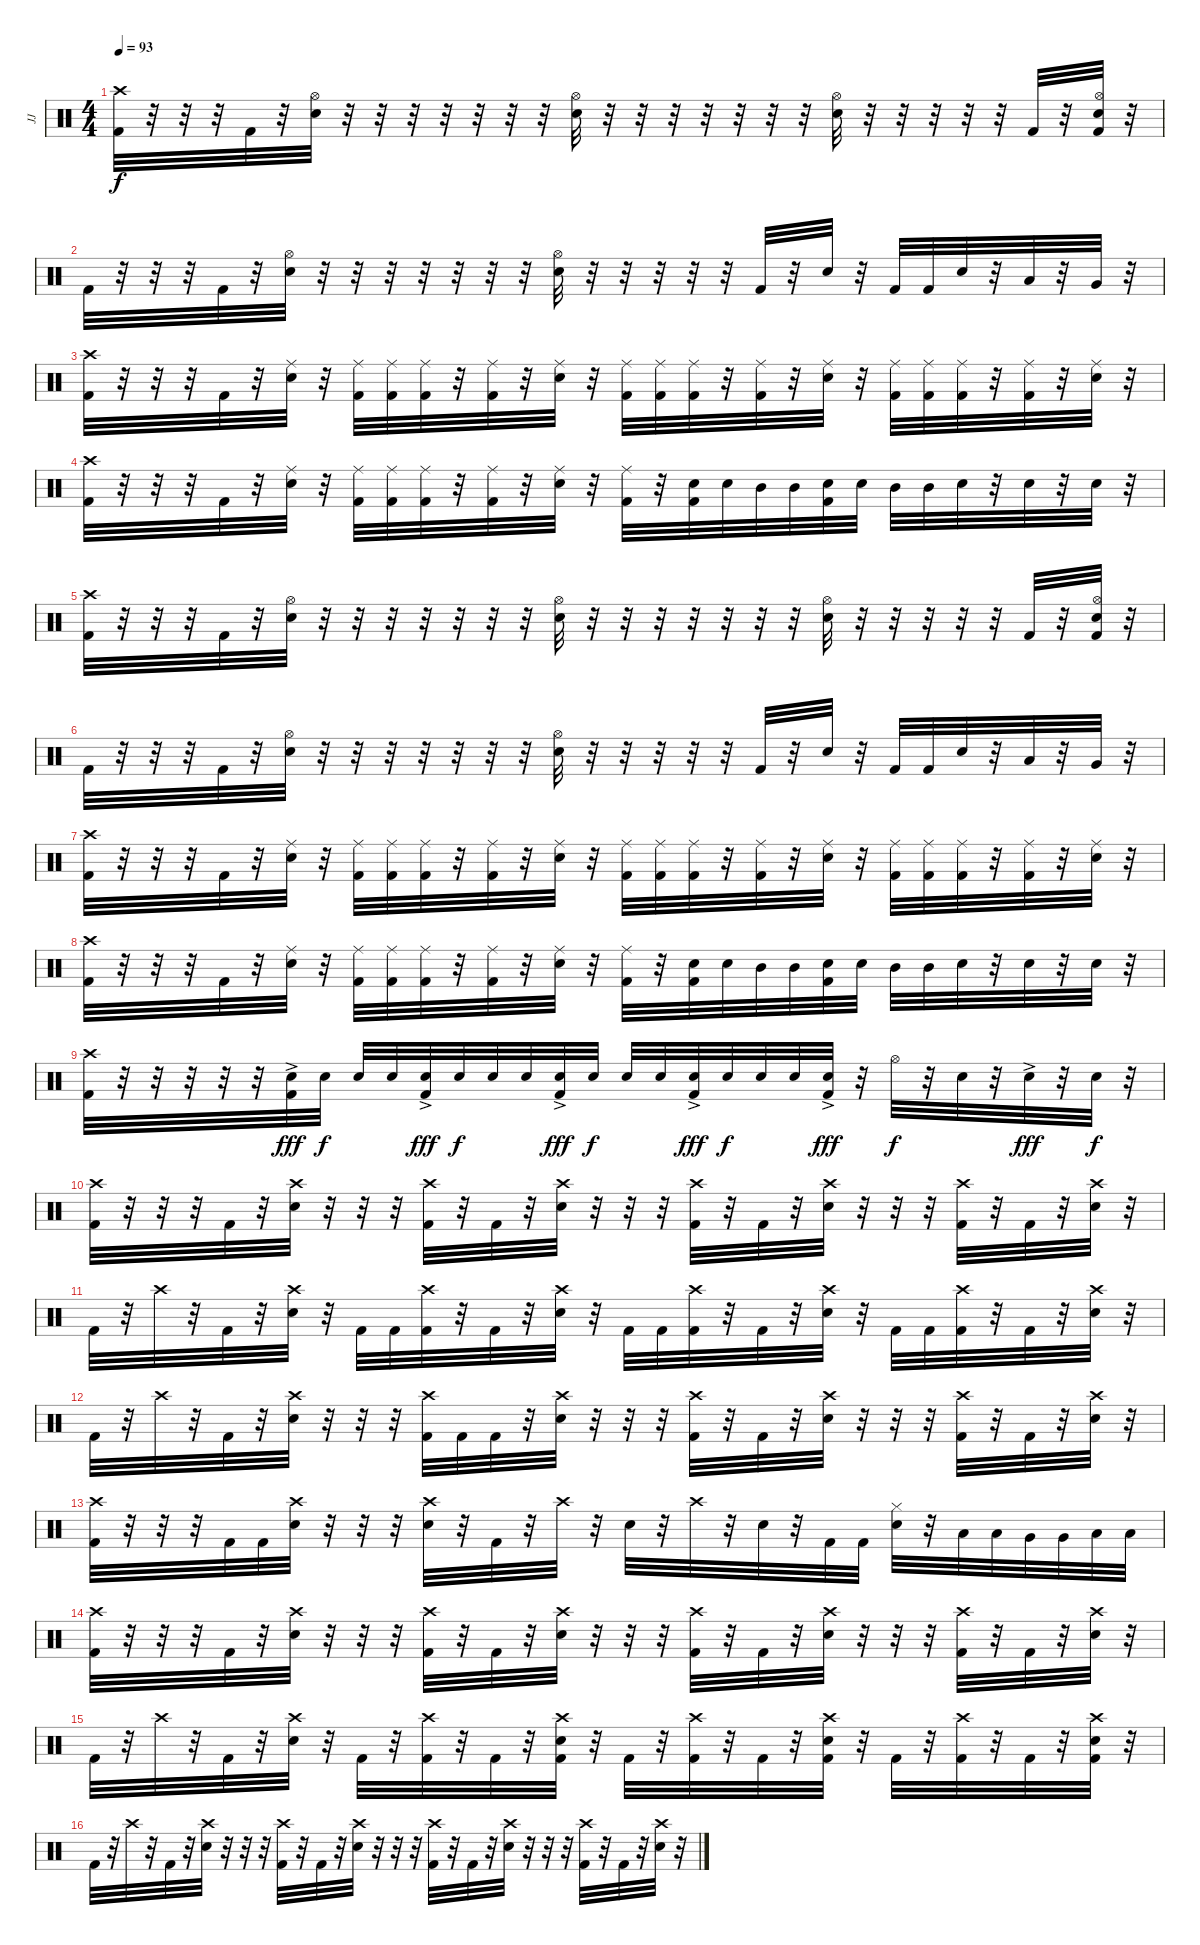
\track ("JJ" "JJ") {instrument percussion}
\staff {score}
\articulation defaults
\ts (4 4)
\tempo 93
\clef neutral
\ks c
("Crash high (hit)" "Kick (hit) 2").32{dy f} r.32 r.32 r.32 "Kick (hit) 2".32 r.32 ("Hi-Hat (open)" "Electric Snare (hit)").32 r.32 r.32 r.32 r.32 r.32 r.32 r.32 ("Hi-Hat (open)" "Electric Snare (hit)").32 r.32 r.32 r.32 r.32 r.32 r.32 r.32 ("Hi-Hat (open)" "Electric Snare (hit)").32 r.32 r.32 r.32 r.32 r.32 "Kick (hit) 2".32 r.32 ("Hi-Hat (open)" "Electric Snare (hit)" "Kick (hit) 2").32 r.32 |
"Kick (hit) 2".32 r.32 r.32 r.32 "Kick (hit) 2".32 r.32 ("Hi-Hat (open)" "Electric Snare (hit)").32 r.32 r.32 r.32 r.32 r.32 r.32 r.32 ("Hi-Hat (open)" "Electric Snare (hit)").32 r.32 r.32 r.32 r.32 r.32 "Kick (hit) 2".32 r.32 "Electric Snare (hit)".32 r.32 "Kick (hit) 2".32 "Kick (hit) 2".32 "Electric Snare (hit)".32 r.32 "Low Tom (hit)".32 r.32 "Very Low Tom (hit)".32 r.32 |
("Crash high (hit)" "Kick (hit) 2").32 r.32 r.32 r.32 "Kick (hit) 2".32 r.32 ("Ride (middle)" "Electric Snare (hit)").32 r.32 ("Ride (middle)" "Kick (hit) 2").32 ("Ride (middle)" "Kick (hit) 2").32 ("Ride (middle)" "Kick (hit) 2").32 r.32 ("Ride (middle)" "Kick (hit) 2").32 r.32 ("Ride (middle)" "Electric Snare (hit)").32 r.32 ("Ride (middle)" "Kick (hit) 2").32 ("Ride (middle)" "Kick (hit) 2").32 ("Ride (middle)" "Kick (hit) 2").32 r.32 ("Ride (middle)" "Kick (hit) 2").32 r.32 ("Ride (middle)" "Electric Snare (hit)").32 r.32 ("Ride (middle)" "Kick (hit) 2").32 ("Ride (middle)" "Kick (hit) 2").32 ("Ride (middle)" "Kick (hit) 2").32 r.32 ("Ride (middle)" "Kick (hit) 2").32 r.32 ("Ride (middle)" "Electric Snare (hit)").32 r.32 |
("Crash high (hit)" "Kick (hit) 2").32 r.32 r.32 r.32 "Kick (hit) 2".32 r.32 ("Ride (middle)" "Electric Snare (hit)").32 r.32 ("Ride (middle)" "Kick (hit) 2").32 ("Ride (middle)" "Kick (hit) 2").32 ("Ride (middle)" "Kick (hit) 2").32 r.32 ("Ride (middle)" "Kick (hit) 2").32 r.32 ("Ride (middle)" "Electric Snare (hit)").32 r.32 ("Ride (middle)" "Kick (hit) 2").32 r.32 ("Electric Snare (hit)" "Kick (hit) 2").32 "Electric Snare (hit)".32 "Mid Tom (hit)".32 "Mid Tom (hit)".32 ("Electric Snare (hit)" "Kick (hit) 2").32 "Electric Snare (hit)".32 "Mid Tom (hit)".32 "Mid Tom (hit)".32 "Electric Snare (hit)".32 r.32 "Electric Snare (hit)".32 r.32 "Electric Snare (hit)".32 r.32 |
("Crash high (hit)" "Kick (hit) 2").32 r.32 r.32 r.32 "Kick (hit) 2".32 r.32 ("Hi-Hat (open)" "Electric Snare (hit)").32 r.32 r.32 r.32 r.32 r.32 r.32 r.32 ("Hi-Hat (open)" "Electric Snare (hit)").32 r.32 r.32 r.32 r.32 r.32 r.32 r.32 ("Hi-Hat (open)" "Electric Snare (hit)").32 r.32 r.32 r.32 r.32 r.32 "Kick (hit) 2".32 r.32 ("Hi-Hat (open)" "Electric Snare (hit)" "Kick (hit) 2").32 r.32 |
"Kick (hit) 2".32 r.32 r.32 r.32 "Kick (hit) 2".32 r.32 ("Hi-Hat (open)" "Electric Snare (hit)").32 r.32 r.32 r.32 r.32 r.32 r.32 r.32 ("Hi-Hat (open)" "Electric Snare (hit)").32 r.32 r.32 r.32 r.32 r.32 "Kick (hit) 2".32 r.32 "Electric Snare (hit)".32 r.32 "Kick (hit) 2".32 "Kick (hit) 2".32 "Electric Snare (hit)".32 r.32 "Low Tom (hit)".32 r.32 "Very Low Tom (hit)".32 r.32 |
("Crash high (hit)" "Kick (hit) 2").32 r.32 r.32 r.32 "Kick (hit) 2".32 r.32 ("Ride (middle)" "Electric Snare (hit)").32 r.32 ("Ride (middle)" "Kick (hit) 2").32 ("Ride (middle)" "Kick (hit) 2").32 ("Ride (middle)" "Kick (hit) 2").32 r.32 ("Ride (middle)" "Kick (hit) 2").32 r.32 ("Ride (middle)" "Electric Snare (hit)").32 r.32 ("Ride (middle)" "Kick (hit) 2").32 ("Ride (middle)" "Kick (hit) 2").32 ("Ride (middle)" "Kick (hit) 2").32 r.32 ("Ride (middle)" "Kick (hit) 2").32 r.32 ("Ride (middle)" "Electric Snare (hit)").32 r.32 ("Ride (middle)" "Kick (hit) 2").32 ("Ride (middle)" "Kick (hit) 2").32 ("Ride (middle)" "Kick (hit) 2").32 r.32 ("Ride (middle)" "Kick (hit) 2").32 r.32 ("Ride (middle)" "Electric Snare (hit)").32 r.32 |
("Crash high (hit)" "Kick (hit) 2").32 r.32 r.32 r.32 "Kick (hit) 2".32 r.32 ("Ride (middle)" "Electric Snare (hit)").32 r.32 ("Ride (middle)" "Kick (hit) 2").32 ("Ride (middle)" "Kick (hit) 2").32 ("Ride (middle)" "Kick (hit) 2").32 r.32 ("Ride (middle)" "Kick (hit) 2").32 r.32 ("Ride (middle)" "Electric Snare (hit)").32 r.32 ("Ride (middle)" "Kick (hit) 2").32 r.32 ("Electric Snare (hit)" "Kick (hit) 2").32 "Electric Snare (hit)".32 "Mid Tom (hit)".32 "Mid Tom (hit)".32 ("Electric Snare (hit)" "Kick (hit) 2").32 "Electric Snare (hit)".32 "Mid Tom (hit)".32 "Mid Tom (hit)".32 "Electric Snare (hit)".32 r.32 "Electric Snare (hit)".32 r.32 "Electric Snare (hit)".32 r.32 |
("Crash high (hit)" "Kick (hit) 2").32 r.32 r.32 r.32 r.32 r.32 ("Electric Snare (hit)"{ac} "Kick (hit) 2").32{dy fff} "Electric Snare (hit)".32{dy f} "Electric Snare (hit)".32 "Electric Snare (hit)".32 ("Electric Snare (hit)"{ac} "Kick (hit) 2").32{dy fff} "Electric Snare (hit)".32{dy f} "Electric Snare (hit)".32 "Electric Snare (hit)".32 ("Electric Snare (hit)"{ac} "Kick (hit) 2").32{dy fff} "Electric Snare (hit)".32{dy f} "Electric Snare (hit)".32 "Electric Snare (hit)".32 ("Electric Snare (hit)"{ac} "Kick (hit) 2").32{dy fff} "Electric Snare (hit)".32{dy f} "Electric Snare (hit)".32 "Electric Snare (hit)".32 ("Electric Snare (hit)"{ac} "Kick (hit) 2").32{dy fff} r.32 "Hi-Hat (open)".32{dy f} r.32 "Electric Snare (hit)".32 r.32 "Electric Snare (hit)"{ac}.32{dy fff} r.32 "Electric Snare (hit)".32{dy f} r.32 |
("Crash high (hit)" "Kick (hit) 2").32 r.32 r.32 r.32 "Kick (hit) 2".32 r.32 ("Crash high (hit)" "Electric Snare (hit)").32 r.32 r.32 r.32 ("Crash high (hit)" "Kick (hit) 2").32 r.32 "Kick (hit) 2".32 r.32 ("Crash high (hit)" "Electric Snare (hit)").32 r.32 r.32 r.32 ("Crash high (hit)" "Kick (hit) 2").32 r.32 "Kick (hit) 2".32 r.32 ("Crash high (hit)" "Electric Snare (hit)").32 r.32 r.32 r.32 ("Crash high (hit)" "Kick (hit) 2").32 r.32 "Kick (hit) 2".32 r.32 ("Crash high (hit)" "Electric Snare (hit)").32 r.32 |
"Kick (hit) 2".32 r.32 "Crash high (hit)".32 r.32 "Kick (hit) 2".32 r.32 ("Crash high (hit)" "Electric Snare (hit)").32 r.32 "Kick (hit) 2".32 "Kick (hit) 2".32 ("Crash high (hit)" "Kick (hit) 2").32 r.32 "Kick (hit) 2".32 r.32 ("Crash high (hit)" "Electric Snare (hit)").32 r.32 "Kick (hit) 2".32 "Kick (hit) 2".32 ("Crash high (hit)" "Kick (hit) 2").32 r.32 "Kick (hit) 2".32 r.32 ("Crash high (hit)" "Electric Snare (hit)").32 r.32 "Kick (hit) 2".32 "Kick (hit) 2".32 ("Crash high (hit)" "Kick (hit) 2").32 r.32 "Kick (hit) 2".32 r.32 ("Crash high (hit)" "Electric Snare (hit)").32 r.32 |
"Kick (hit) 2".32 r.32 "Crash high (hit)".32 r.32 "Kick (hit) 2".32 r.32 ("Crash high (hit)" "Electric Snare (hit)").32 r.32 r.32 r.32 ("Crash high (hit)" "Kick (hit) 2").32 "Kick (hit) 2".32 "Kick (hit) 2".32 r.32 ("Crash high (hit)" "Electric Snare (hit)").32 r.32 r.32 r.32 ("Crash high (hit)" "Kick (hit) 2").32 r.32 "Kick (hit) 2".32 r.32 ("Crash high (hit)" "Electric Snare (hit)").32 r.32 r.32 r.32 ("Crash high (hit)" "Kick (hit) 2").32 r.32 "Kick (hit) 2".32 r.32 ("Crash high (hit)" "Electric Snare (hit)").32 r.32 |
("Crash high (hit)" "Kick (hit) 2").32 r.32 r.32 r.32 "Kick (hit) 2".32 "Kick (hit) 2".32 ("Crash high (hit)" "Electric Snare (hit)").32 r.32 r.32 r.32 ("Crash high (hit)" "Electric Snare (hit)").32 r.32 "Kick (hit) 2".32 r.32 "Crash high (hit)".32 r.32 "Electric Snare (hit)".32 r.32 "Crash high (hit)".32 r.32 "Electric Snare (hit)".32 r.32 "Kick (hit) 2".32 "Kick (hit) 2".32 ("Hi-Hat (closed)" "Electric Snare (hit)").32 r.32 "Low Tom (hit)".32 "Low Tom (hit)".32 "Very Low Tom (hit)".32 "Very Low Tom (hit)".32 "Low Floor Tom (hit)".32 "Low Floor Tom (hit)".32 |
("Crash high (hit)" "Kick (hit) 2").32 r.32 r.32 r.32 "Kick (hit) 2".32 r.32 ("Crash high (hit)" "Electric Snare (hit)").32 r.32 r.32 r.32 ("Crash high (hit)" "Kick (hit) 2").32 r.32 "Kick (hit) 2".32 r.32 ("Crash high (hit)" "Electric Snare (hit)").32 r.32 r.32 r.32 ("Crash high (hit)" "Kick (hit) 2").32 r.32 "Kick (hit) 2".32 r.32 ("Crash high (hit)" "Electric Snare (hit)").32 r.32 r.32 r.32 ("Crash high (hit)" "Kick (hit) 2").32 r.32 "Kick (hit) 2".32 r.32 ("Crash high (hit)" "Electric Snare (hit)").32 r.32 |
"Kick (hit) 2".32 r.32 "Crash high (hit)".32 r.32 "Kick (hit) 2".32 r.32 ("Crash high (hit)" "Electric Snare (hit)").32 r.32 "Kick (hit) 2".32 r.32 ("Crash high (hit)" "Kick (hit) 2").32 r.32 "Kick (hit) 2".32 r.32 ("Crash high (hit)" "Electric Snare (hit)" "Kick (hit) 2").32 r.32 "Kick (hit) 2".32 r.32 ("Crash high (hit)" "Kick (hit) 2").32 r.32 "Kick (hit) 2".32 r.32 ("Crash high (hit)" "Electric Snare (hit)" "Kick (hit) 2").32 r.32 "Kick (hit) 2".32 r.32 ("Crash high (hit)" "Kick (hit) 2").32 r.32 "Kick (hit) 2".32 r.32 ("Crash high (hit)" "Electric Snare (hit)" "Kick (hit) 2").32 r.32 |
"Kick (hit) 2".32 r.32 "Crash high (hit)".32 r.32 "Kick (hit) 2".32 r.32 ("Crash high (hit)" "Electric Snare (hit)").32 r.32 r.32 r.32 ("Crash high (hit)" "Kick (hit) 2").32 r.32 "Kick (hit) 2".32 r.32 ("Crash high (hit)" "Electric Snare (hit)").32 r.32 r.32 r.32 ("Crash high (hit)" "Kick (hit) 2").32 r.32 "Kick (hit) 2".32 r.32 ("Crash high (hit)" "Electric Snare (hit)").32 r.32 r.32 r.32 ("Crash high (hit)" "Kick (hit) 2").32 r.32 "Kick (hit) 2".32 r.32 ("Crash high (hit)" "Electric Snare (hit)").32 r.32
